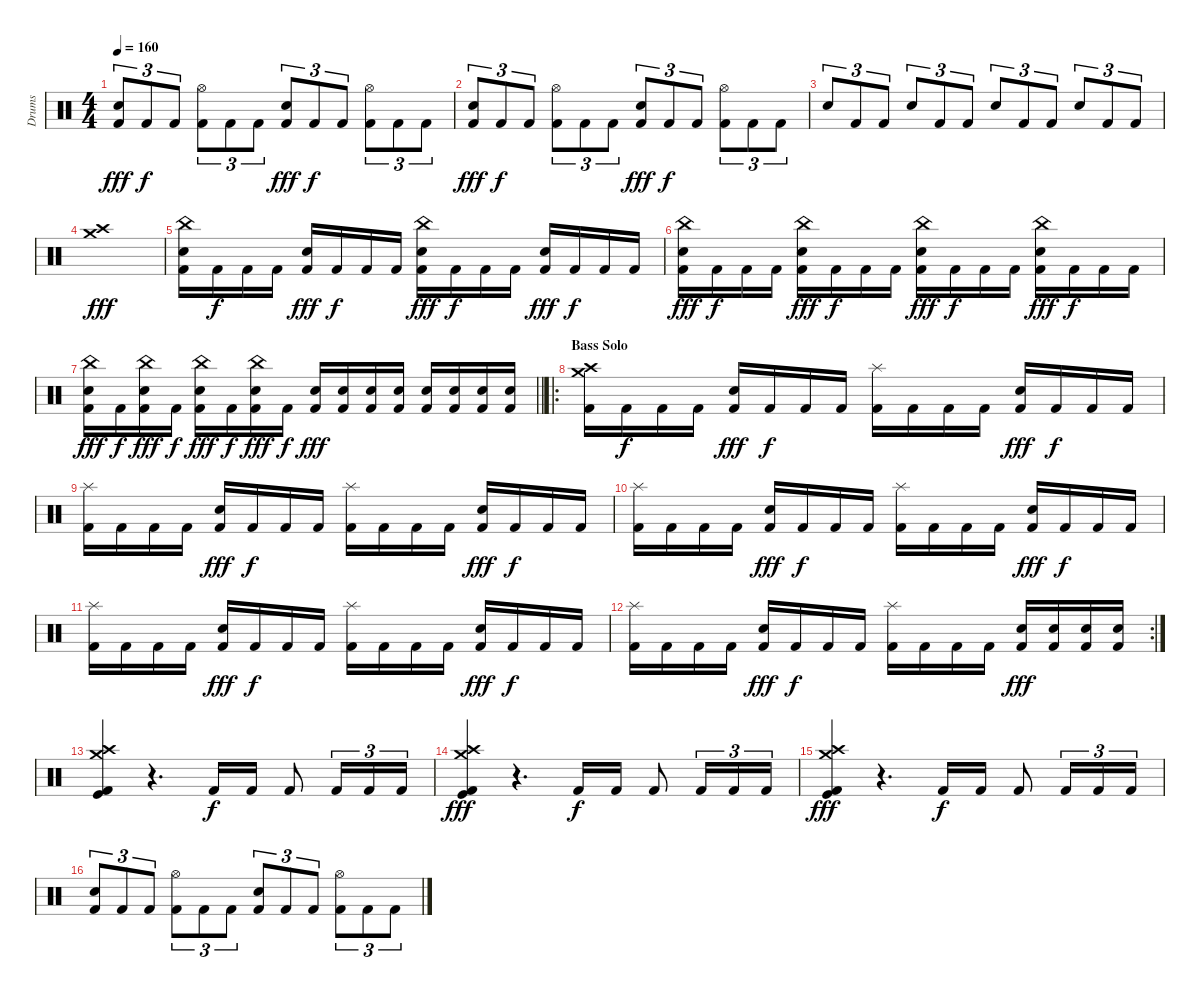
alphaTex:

\track ("Drums" "Drums") {instrument percussion}
\staff {score}
\articulation defaults
\ts (4 4)
\tempo 160
\clef neutral
\ks c
("Electric Snare (hit)" "Kick (hit) 2").8{tu (3 2) dy fff} "Kick (hit) 2".8{tu (3 2) dy f} "Kick (hit) 2".8{tu (3 2)} ("Hi-Hat (open)" "Kick (hit) 2").8{tu (3 2)} "Kick (hit) 2".8{tu (3 2)} "Kick (hit) 2".8{tu (3 2)} ("Electric Snare (hit)" "Kick (hit) 2").8{tu (3 2) dy fff} "Kick (hit) 2".8{tu (3 2) dy f} "Kick (hit) 2".8{tu (3 2)} ("Hi-Hat (open)" "Kick (hit) 2").8{tu (3 2)} "Kick (hit) 2".8{tu (3 2)} "Kick (hit) 2".8{tu (3 2)} |
("Electric Snare (hit)" "Kick (hit) 2").8{tu (3 2) dy fff} "Kick (hit) 2".8{tu (3 2) dy f} "Kick (hit) 2".8{tu (3 2)} ("Hi-Hat (open)" "Kick (hit) 2").8{tu (3 2)} "Kick (hit) 2".8{tu (3 2)} "Kick (hit) 2".8{tu (3 2)} ("Electric Snare (hit)" "Kick (hit) 2").8{tu (3 2) dy fff} "Kick (hit) 2".8{tu (3 2) dy f} "Kick (hit) 2".8{tu (3 2)} ("Hi-Hat (open)" "Kick (hit) 2").8{tu (3 2)} "Kick (hit) 2".8{tu (3 2)} "Kick (hit) 2".8{tu (3 2)} |
"Electric Snare (hit)".8{tu (3 2)} "Kick (hit) 2".8{tu (3 2)} "Kick (hit) 2".8{tu (3 2)} "Electric Snare (hit)".8{tu (3 2)} "Kick (hit) 2".8{tu (3 2)} "Kick (hit) 2".8{tu (3 2)} "Electric Snare (hit)".8{tu (3 2)} "Kick (hit) 2".8{tu (3 2)} "Kick (hit) 2".8{tu (3 2)} "Electric Snare (hit)".8{tu (3 2)} "Kick (hit) 2".8{tu (3 2)} "Kick (hit) 2".8{tu (3 2)} |
("Crash high (hit)" "Crash medium (hit)").1{dy fff} |
("China (hit)" "Electric Snare (hit)" "Kick (hit) 2").16 "Kick (hit) 2".16{dy f} "Kick (hit) 2".16 "Kick (hit) 2".16 ("Electric Snare (hit)" "Kick (hit) 2").16{dy fff} "Kick (hit) 2".16{dy f} "Kick (hit) 2".16 "Kick (hit) 2".16 ("China (hit)" "Electric Snare (hit)" "Kick (hit) 2").16{dy fff} "Kick (hit) 2".16{dy f} "Kick (hit) 2".16 "Kick (hit) 2".16 ("Electric Snare (hit)" "Kick (hit) 2").16{dy fff} "Kick (hit) 2".16{dy f} "Kick (hit) 2".16 "Kick (hit) 2".16 |
("China (hit)" "Electric Snare (hit)" "Kick (hit) 2").16{dy fff} "Kick (hit) 2".16{dy f} "Kick (hit) 2".16 "Kick (hit) 2".16 ("China (hit)" "Electric Snare (hit)" "Kick (hit) 2").16{dy fff} "Kick (hit) 2".16{dy f} "Kick (hit) 2".16 "Kick (hit) 2".16 ("China (hit)" "Electric Snare (hit)" "Kick (hit) 2").16{dy fff} "Kick (hit) 2".16{dy f} "Kick (hit) 2".16 "Kick (hit) 2".16 ("China (hit)" "Electric Snare (hit)" "Kick (hit) 2").16{dy fff} "Kick (hit) 2".16{dy f} "Kick (hit) 2".16 "Kick (hit) 2".16 |
\barLineRight lightlight
("China (hit)" "Electric Snare (hit)" "Kick (hit) 2").16{dy fff} "Kick (hit) 2".16{dy f} ("China (hit)" "Electric Snare (hit)" "Kick (hit) 2").16{dy fff} "Kick (hit) 2".16{dy f} ("China (hit)" "Electric Snare (hit)" "Kick (hit) 2").16{dy fff} "Kick (hit) 2".16{dy f} ("China (hit)" "Electric Snare (hit)" "Kick (hit) 2").16{dy fff} "Kick (hit) 2".16{dy f} ("Electric Snare (hit)" "Kick (hit) 2").16{dy fff} ("Electric Snare (hit)" "Kick (hit) 2").16 ("Electric Snare (hit)" "Kick (hit) 2").16 ("Electric Snare (hit)" "Kick (hit) 2").16 ("Electric Snare (hit)" "Kick (hit) 2").16 ("Electric Snare (hit)" "Kick (hit) 2").16 ("Electric Snare (hit)" "Kick (hit) 2").16 ("Electric Snare (hit)" "Kick (hit) 2").16 |
\ro
\section ("" "Bass Solo")
("Crash high (hit)" "Crash medium (hit)" "Kick (hit) 2").16 "Kick (hit) 2".16{dy f} "Kick (hit) 2".16 "Kick (hit) 2".16 ("Electric Snare (hit)" "Kick (hit) 2").16{dy fff} "Kick (hit) 2".16{dy f} "Kick (hit) 2".16 "Kick (hit) 2".16 ("Splash (hit)" "Kick (hit) 2").16 "Kick (hit) 2".16 "Kick (hit) 2".16 "Kick (hit) 2".16 ("Electric Snare (hit)" "Kick (hit) 2").16{dy fff} "Kick (hit) 2".16{dy f} "Kick (hit) 2".16 "Kick (hit) 2".16 |
("Splash (hit)" "Kick (hit) 2").16 "Kick (hit) 2".16 "Kick (hit) 2".16 "Kick (hit) 2".16 ("Electric Snare (hit)" "Kick (hit) 2").16{dy fff} "Kick (hit) 2".16{dy f} "Kick (hit) 2".16 "Kick (hit) 2".16 ("Splash (hit)" "Kick (hit) 2").16 "Kick (hit) 2".16 "Kick (hit) 2".16 "Kick (hit) 2".16 ("Electric Snare (hit)" "Kick (hit) 2").16{dy fff} "Kick (hit) 2".16{dy f} "Kick (hit) 2".16 "Kick (hit) 2".16 |
("Splash (hit)" "Kick (hit) 2").16 "Kick (hit) 2".16 "Kick (hit) 2".16 "Kick (hit) 2".16 ("Electric Snare (hit)" "Kick (hit) 2").16{dy fff} "Kick (hit) 2".16{dy f} "Kick (hit) 2".16 "Kick (hit) 2".16 ("Splash (hit)" "Kick (hit) 2").16 "Kick (hit) 2".16 "Kick (hit) 2".16 "Kick (hit) 2".16 ("Electric Snare (hit)" "Kick (hit) 2").16{dy fff} "Kick (hit) 2".16{dy f} "Kick (hit) 2".16 "Kick (hit) 2".16 |
("Splash (hit)" "Kick (hit) 2").16 "Kick (hit) 2".16 "Kick (hit) 2".16 "Kick (hit) 2".16 ("Electric Snare (hit)" "Kick (hit) 2").16{dy fff} "Kick (hit) 2".16{dy f} "Kick (hit) 2".16 "Kick (hit) 2".16 ("Splash (hit)" "Kick (hit) 2").16 "Kick (hit) 2".16 "Kick (hit) 2".16 "Kick (hit) 2".16 ("Electric Snare (hit)" "Kick (hit) 2").16{dy fff} "Kick (hit) 2".16{dy f} "Kick (hit) 2".16 "Kick (hit) 2".16 |
\rc 2
("Splash (hit)" "Kick (hit) 2").16 "Kick (hit) 2".16 "Kick (hit) 2".16 "Kick (hit) 2".16 ("Electric Snare (hit)" "Kick (hit) 2").16{dy fff} "Kick (hit) 2".16{dy f} "Kick (hit) 2".16 "Kick (hit) 2".16 ("Splash (hit)" "Kick (hit) 2").16 "Kick (hit) 2".16 "Kick (hit) 2".16 "Kick (hit) 2".16 ("Electric Snare (hit)" "Kick (hit) 2").16{dy fff} ("Electric Snare (hit)" "Kick (hit) 2").16 ("Electric Snare (hit)" "Kick (hit) 2").16 ("Electric Snare (hit)" "Kick (hit) 2").16 |
("Crash high (hit)" "Crash medium (hit)" "Kick (hit)" "Kick (hit) 2").4 r.4{d volume 0} "Kick (hit) 2".16{dy f volume 16} "Kick (hit) 2".16 "Kick (hit) 2".8 "Kick (hit) 2".16{tu (3 2)} "Kick (hit) 2".16{tu (3 2)} "Kick (hit) 2".16{tu (3 2)} |
("Crash high (hit)" "Crash medium (hit)" "Kick (hit)" "Kick (hit) 2").4{dy fff} r.4{d volume 0} "Kick (hit) 2".16{dy f volume 16} "Kick (hit) 2".16 "Kick (hit) 2".8 "Kick (hit) 2".16{tu (3 2)} "Kick (hit) 2".16{tu (3 2)} "Kick (hit) 2".16{tu (3 2)} |
("Crash high (hit)" "Crash medium (hit)" "Kick (hit)" "Kick (hit) 2").4{dy fff} r.4{d volume 0} "Kick (hit) 2".16{dy f volume 16} "Kick (hit) 2".16 "Kick (hit) 2".8 "Kick (hit) 2".16{tu (3 2)} "Kick (hit) 2".16{tu (3 2)} "Kick (hit) 2".16{tu (3 2)} |
("Electric Snare (hit)" "Kick (hit) 2").8{tu (3 2)} "Kick (hit) 2".8{tu (3 2)} "Kick (hit) 2".8{tu (3 2)} ("Hi-Hat (open)" "Kick (hit) 2").8{tu (3 2)} "Kick (hit) 2".8{tu (3 2)} "Kick (hit) 2".8{tu (3 2)} ("Electric Snare (hit)" "Kick (hit) 2").8{tu (3 2)} "Kick (hit) 2".8{tu (3 2)} "Kick (hit) 2".8{tu (3 2)} ("Hi-Hat (open)" "Kick (hit) 2").8{tu (3 2)} "Kick (hit) 2".8{tu (3 2)} "Kick (hit) 2".8{tu (3 2)}
